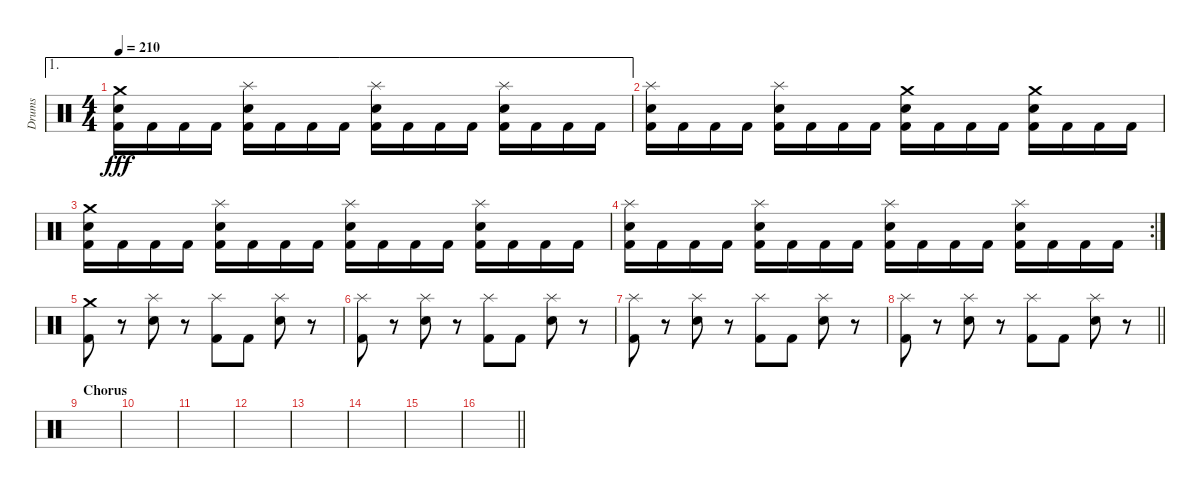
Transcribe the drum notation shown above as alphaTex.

\track ("Drums" "Drums") {instrument percussion}
\staff {score}
\articulation defaults
\ae 1
\ts (4 4)
\tempo 210
\clef neutral
\ks c
("Crash medium (hit)" "Electric Snare (hit)" "Kick (hit) 2").16{dy fff} "Kick (hit) 2".16 "Kick (hit) 2".16 "Kick (hit) 2".16 ("Splash (hit)" "Electric Snare (hit)" "Kick (hit) 2").16 "Kick (hit) 2".16 "Kick (hit) 2".16 "Kick (hit) 2".16 ("Splash (hit)" "Electric Snare (hit)" "Kick (hit) 2").16 "Kick (hit) 2".16 "Kick (hit) 2".16 "Kick (hit) 2".16 ("Splash (hit)" "Electric Snare (hit)" "Kick (hit) 2").16 "Kick (hit) 2".16 "Kick (hit) 2".16 "Kick (hit) 2".16 |
("Splash (hit)" "Electric Snare (hit)" "Kick (hit) 2").16 "Kick (hit) 2".16 "Kick (hit) 2".16 "Kick (hit) 2".16 ("Splash (hit)" "Electric Snare (hit)" "Kick (hit) 2").16 "Kick (hit) 2".16 "Kick (hit) 2".16 "Kick (hit) 2".16 ("Crash medium (hit)" "Electric Snare (hit)" "Kick (hit) 2").16 "Kick (hit) 2".16 "Kick (hit) 2".16 "Kick (hit) 2".16 ("Crash medium (hit)" "Electric Snare (hit)" "Kick (hit) 2").16 "Kick (hit) 2".16 "Kick (hit) 2".16 "Kick (hit) 2".16 |
("Crash medium (hit)" "Electric Snare (hit)" "Kick (hit) 2").16 "Kick (hit) 2".16 "Kick (hit) 2".16 "Kick (hit) 2".16 ("Splash (hit)" "Electric Snare (hit)" "Kick (hit) 2").16 "Kick (hit) 2".16 "Kick (hit) 2".16 "Kick (hit) 2".16 ("Splash (hit)" "Electric Snare (hit)" "Kick (hit) 2").16 "Kick (hit) 2".16 "Kick (hit) 2".16 "Kick (hit) 2".16 ("Splash (hit)" "Electric Snare (hit)" "Kick (hit) 2").16 "Kick (hit) 2".16 "Kick (hit) 2".16 "Kick (hit) 2".16 |
\rc 2
("Splash (hit)" "Electric Snare (hit)" "Kick (hit) 2").16 "Kick (hit) 2".16 "Kick (hit) 2".16 "Kick (hit) 2".16 ("Splash (hit)" "Electric Snare (hit)" "Kick (hit) 2").16 "Kick (hit) 2".16 "Kick (hit) 2".16 "Kick (hit) 2".16 ("Splash (hit)" "Electric Snare (hit)" "Kick (hit) 2").16 "Kick (hit) 2".16 "Kick (hit) 2".16 "Kick (hit) 2".16 ("Splash (hit)" "Electric Snare (hit)" "Kick (hit) 2").16 "Kick (hit) 2".16 "Kick (hit) 2".16 "Kick (hit) 2".16 |
("Crash medium (hit)" "Kick (hit) 2").8 r.8 ("Splash (hit)" "Electric Snare (hit)").8 r.8 ("Splash (hit)" "Kick (hit) 2").8 "Kick (hit) 2".8 ("Splash (hit)" "Electric Snare (hit)").8 r.8 |
("Splash (hit)" "Kick (hit) 2").8 r.8 ("Splash (hit)" "Electric Snare (hit)").8 r.8 ("Splash (hit)" "Kick (hit) 2").8 "Kick (hit) 2".8 ("Splash (hit)" "Electric Snare (hit)").8 r.8 |
("Splash (hit)" "Kick (hit) 2").8 r.8 ("Splash (hit)" "Electric Snare (hit)").8 r.8 ("Splash (hit)" "Kick (hit) 2").8 "Kick (hit) 2".8 ("Splash (hit)" "Electric Snare (hit)").8 r.8 |
\barLineRight lightlight
("Splash (hit)" "Kick (hit) 2").8 r.8 ("Splash (hit)" "Electric Snare (hit)").8 r.8 ("Splash (hit)" "Kick (hit) 2").8 "Kick (hit) 2".8 ("Splash (hit)" "Electric Snare (hit)").8 r.8 |
\section ("" "Chorus")
|
|
|
|
|
|
|
\barLineRight lightlight
